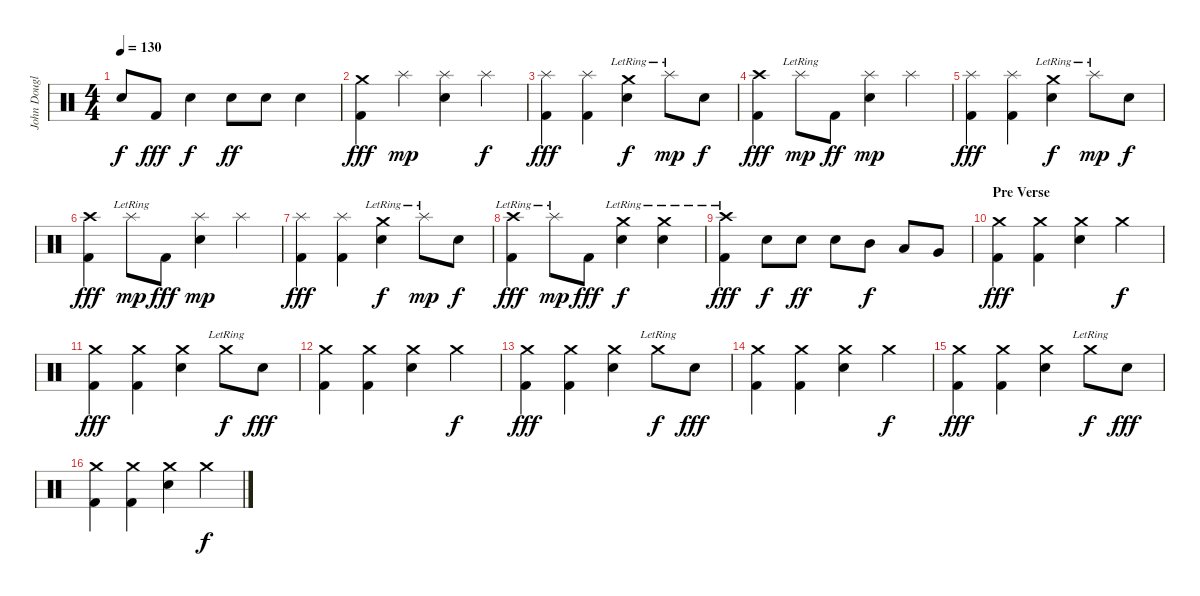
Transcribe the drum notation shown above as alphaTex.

\track ("John Douglas (Drums)" "John Dougl") {instrument percussion}
\staff {score}
\articulation defaults
\ts (4 4)
\tempo 130
\clef neutral
\ks c "Snare (hit)"{t}.8{dy f} "Kick (hit) 2".8{dy fff} "Snare (hit) 2".4{dy f} "Snare (hit) 2".8{dy ff} "Snare (hit) 2".8 "Snare (hit) 2".4
|
("Crash medium (hit)" "Kick (hit) 2").4{dy fff} "Splash (hit)".4{dy mp} ("Splash (hit)" "Snare (hit) 2").4 "Splash (hit)".4{dy f} |
("Splash (hit)" "Kick (hit) 2").4{dy fff} ("Splash (hit)" "Kick (hit) 2").4 ("Crash medium (hit)"{lr} "Snare (hit) 2").4{dy f} "Splash (hit)"{lr}.8{dy mp} "Snare (hit) 2".8{dy f} |
("Crash high (hit)" "Kick (hit) 2").4{dy fff} "Splash (hit)"{lr}.8{dy mp} "Kick (hit) 2".8{dy ff} ("Splash (hit)" "Snare (hit) 2").4{dy mp} "Splash (hit)".4 |
("Splash (hit)" "Kick (hit) 2").4{dy fff} ("Splash (hit)" "Kick (hit) 2").4 ("Crash medium (hit)"{lr} "Snare (hit) 2").4{dy f} "Splash (hit)"{lr}.8{dy mp} "Snare (hit) 2".8{dy f} |
("Crash high (hit)" "Kick (hit) 2").4{dy fff} "Splash (hit)"{lr}.8{dy mp} "Kick (hit) 2".8{dy fff} ("Splash (hit)" "Snare (hit) 2").4{dy mp} "Splash (hit)".4 |
("Splash (hit)" "Kick (hit) 2").4{dy fff} ("Splash (hit)" "Kick (hit) 2").4 ("Crash medium (hit)"{lr} "Snare (hit) 2").4{dy f} "Splash (hit)"{lr}.8{dy mp} "Snare (hit) 2".8{dy f} |
("Crash high (hit)"{lr} "Kick (hit) 2").4{dy fff} "Splash (hit)"{lr}.8{dy mp} "Kick (hit) 2".8{dy fff} ("Crash medium (hit)"{lr} "Snare (hit) 2").4{dy f} ("Crash medium (hit)"{lr} "Snare (hit) 2").4 |
("Crash high (hit)"{lr} "Kick (hit) 2").4{dy fff} "Snare (hit) 2".8{dy f} "Snare (hit) 2".8{dy ff} "Snare (hit) 2".8 "Mid Tom (hit)".8{dy f} "Low Tom (hit)".8 "Very Low Tom (hit)".8 |
\section ("" "Pre Verse")
("Crash medium (hit)" "Kick (hit) 2").4{dy fff} ("Crash medium (hit)" "Kick (hit) 2").4 ("Crash medium (hit)" "Snare (hit) 2").4 "Crash medium (hit)".4{dy f} |
("Crash medium (hit)" "Kick (hit) 2").4{dy fff} ("Crash medium (hit)" "Kick (hit) 2").4 ("Crash medium (hit)" "Snare (hit) 2").4 "Crash medium (hit)"{lr}.8{dy f} "Snare (hit) 2".8{dy fff} |
("Crash medium (hit)" "Kick (hit) 2").4 ("Crash medium (hit)" "Kick (hit) 2").4 ("Crash medium (hit)" "Snare (hit) 2").4 "Crash medium (hit)".4{dy f} |
("Crash medium (hit)" "Kick (hit) 2").4{dy fff} ("Crash medium (hit)" "Kick (hit) 2").4 ("Crash medium (hit)" "Snare (hit) 2").4 "Crash medium (hit)"{lr}.8{dy f} "Snare (hit) 2".8{dy fff} |
("Crash medium (hit)" "Kick (hit) 2").4 ("Crash medium (hit)" "Kick (hit) 2").4 ("Crash medium (hit)" "Snare (hit) 2").4 "Crash medium (hit)".4{dy f} |
("Crash medium (hit)" "Kick (hit) 2").4{dy fff} ("Crash medium (hit)" "Kick (hit) 2").4 ("Crash medium (hit)" "Snare (hit) 2").4 "Crash medium (hit)"{lr}.8{dy f} "Snare (hit) 2".8{dy fff} |
("Crash medium (hit)" "Kick (hit) 2").4 ("Crash medium (hit)" "Kick (hit) 2").4 ("Crash medium (hit)" "Snare (hit) 2").4 "Crash medium (hit)".4{dy f}
